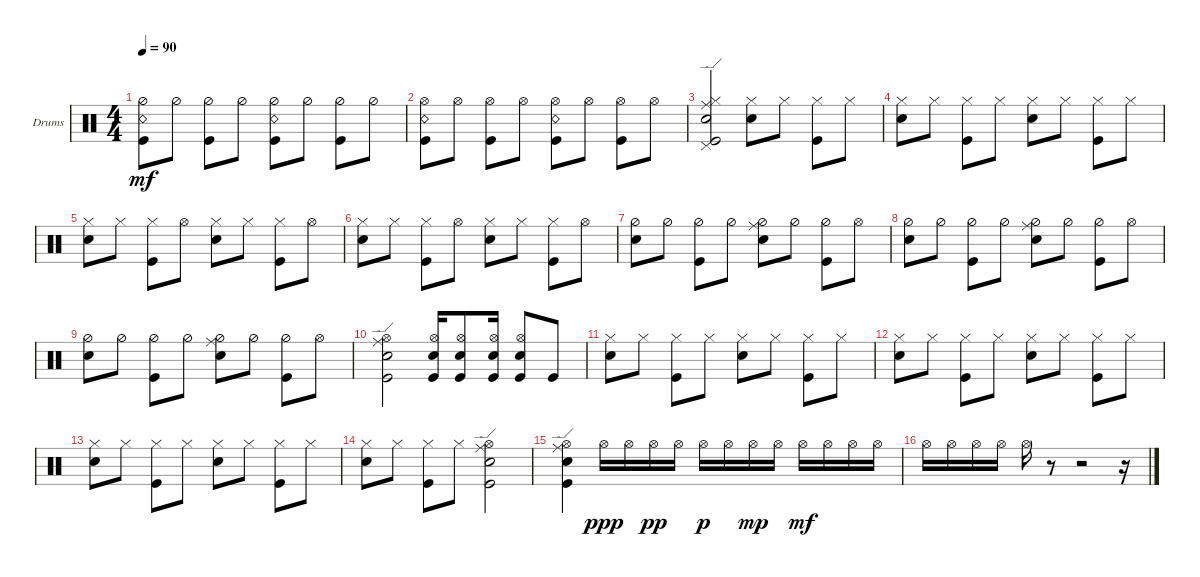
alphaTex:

\defaultSystemsLayout 4
\bracketExtendMode groupsimilarinstruments
\firstSystemTrackNameOrientation horizontal
\otherSystemsTrackNameOrientation horizontal
\track ("Drumkit" "Drums") {instrument percussion}
\staff {score}
\articulation defaults
\ts (4 4)
\tempo 90
\clef neutral
\ks c
("Snare (rim shot)" "Hi-Hat (half)" "Kick (hit)").8{dy mf} "Hi-Hat (half)".8 ("Kick (hit)" "Hi-Hat (half)").8 "Hi-Hat (half)".8 ("Snare (rim shot)" "Hi-Hat (half)" "Kick (hit)").8 "Hi-Hat (half)".8 ("Kick (hit)" "Hi-Hat (half)").8 "Hi-Hat (half)".8 |
("Snare (rim shot)" "Hi-Hat (open)" "Kick (hit)").8 "Hi-Hat (open)".8 ("Kick (hit)" "Hi-Hat (open)").8 "Hi-Hat (open)".8 ("Snare (rim shot)" "Hi-Hat (open)" "Kick (hit)").8 "Hi-Hat (open)".8 ("Kick (hit)" "Hi-Hat (open)").8 "Hi-Hat (open)".8 |
("Snare (hit) 2" "Kick (hit)" "Ride (edge)" "Hi-Hat (closed)" "Pedal Hi-Hat (hit)").2 ("Snare (hit) 2" "Hi-Hat (closed)").8 "Hi-Hat (closed)".8 ("Kick (hit)" "Hi-Hat (closed)").8 "Hi-Hat (closed)".8 |
("Snare (hit) 2" "Hi-Hat (closed)").8 "Hi-Hat (closed)".8 ("Kick (hit)" "Hi-Hat (closed)").8 "Hi-Hat (closed)".8 ("Snare (hit) 2" "Hi-Hat (closed)").8 "Hi-Hat (closed)".8 ("Kick (hit)" "Hi-Hat (closed)").8 "Hi-Hat (closed)".8 |
("Snare (hit) 2" "Hi-Hat (closed)").8 "Hi-Hat (closed)".8 ("Kick (hit)" "Hi-Hat (closed)").8 "Hi-Hat (open)".8 ("Snare (hit) 2" "Hi-Hat (closed)").8 "Hi-Hat (closed)".8 ("Kick (hit)" "Hi-Hat (closed)").8 "Hi-Hat (open)".8 |
("Snare (hit) 2" "Hi-Hat (closed)").8 "Hi-Hat (closed)".8 ("Kick (hit)" "Hi-Hat (closed)").8 "Hi-Hat (open)".8 ("Snare (hit) 2" "Hi-Hat (closed)").8 "Hi-Hat (closed)".8 ("Kick (hit)" "Hi-Hat (closed)").8 "Hi-Hat (open)".8 |
("Snare (hit) 2" "Hi-Hat (half)").8 "Hi-Hat (half)".8 ("Kick (hit)" "Hi-Hat (half)").8 "Hi-Hat (half)".8 ("Snare (hit) 2" "Hi-Hat (half)" "Ride (middle)").8 "Hi-Hat (half)".8 ("Kick (hit)" "Hi-Hat (half)").8 "Hi-Hat (open)".8 |
("Snare (hit) 2" "Hi-Hat (half)").8 "Hi-Hat (half)".8 ("Kick (hit)" "Hi-Hat (half)").8 "Hi-Hat (half)".8 ("Snare (hit) 2" "Hi-Hat (half)" "Ride (middle)").8 "Hi-Hat (half)".8 ("Kick (hit)" "Hi-Hat (half)").8 "Hi-Hat (open)".8 |
("Snare (hit) 2" "Hi-Hat (half)").8 "Hi-Hat (half)".8 ("Kick (hit)" "Hi-Hat (half)").8 "Hi-Hat (half)".8 ("Snare (hit) 2" "Hi-Hat (half)" "Ride (middle)").8 "Hi-Hat (half)".8 ("Kick (hit)" "Hi-Hat (half)").8 "Hi-Hat (open)".8 |
("Kick (hit)" "Snare (hit) 2" "Ride (edge)" "Hi-Hat (open)").2 ("Kick (hit)" "Snare (hit) 2" "Hi-Hat (open)").16 ("Kick (hit)" "Snare (hit) 2" "Hi-Hat (open)").8 ("Kick (hit)" "Snare (hit) 2" "Hi-Hat (open)").16 ("Kick (hit)" "Snare (hit) 2" "Hi-Hat (open)").8 "Kick (hit)".8 |
("Snare (hit) 2" "Hi-Hat (closed)").8 "Hi-Hat (closed)".8 ("Kick (hit)" "Hi-Hat (closed)").8 "Hi-Hat (closed)".8 ("Snare (hit) 2" "Hi-Hat (closed)").8 "Hi-Hat (closed)".8 ("Kick (hit)" "Hi-Hat (closed)").8 "Hi-Hat (closed)".8 |
("Snare (hit) 2" "Hi-Hat (closed)").8 "Hi-Hat (closed)".8 ("Kick (hit)" "Hi-Hat (closed)").8 "Hi-Hat (closed)".8 ("Snare (hit) 2" "Hi-Hat (closed)").8 "Hi-Hat (closed)".8 ("Kick (hit)" "Hi-Hat (closed)").8 "Hi-Hat (closed)".8 |
("Snare (hit) 2" "Hi-Hat (closed)").8 "Hi-Hat (closed)".8 ("Kick (hit)" "Hi-Hat (closed)").8 "Hi-Hat (closed)".8 ("Snare (hit) 2" "Hi-Hat (closed)").8 "Hi-Hat (closed)".8 ("Kick (hit)" "Hi-Hat (closed)").8 "Hi-Hat (closed)".8 |
("Snare (hit) 2" "Hi-Hat (closed)").8 "Hi-Hat (closed)".8 ("Kick (hit)" "Hi-Hat (closed)").8 "Hi-Hat (closed)".8 ("Ride (edge)" "Hi-Hat (open)" "Kick (hit)" "Snare (hit) 2").2 |
("Ride (edge)" "Hi-Hat (open)" "Kick (hit)" "Snare (hit) 2").4 "Hi-Hat (open)".16{dy ppp} "Hi-Hat (open)".16 "Hi-Hat (open)".16{dy pp} "Hi-Hat (open)".16 "Hi-Hat (open)".16{dy p} "Hi-Hat (open)".16 "Hi-Hat (open)".16{dy mp} "Hi-Hat (open)".16 "Hi-Hat (open)".16{dy mf} "Hi-Hat (open)".16 "Hi-Hat (open)".16 "Hi-Hat (open)".16 |
"Hi-Hat (open)".16 "Hi-Hat (open)".16 "Hi-Hat (open)".16 "Hi-Hat (open)".16 "Hi-Hat (open)".16 r.8 r.2 r.16
